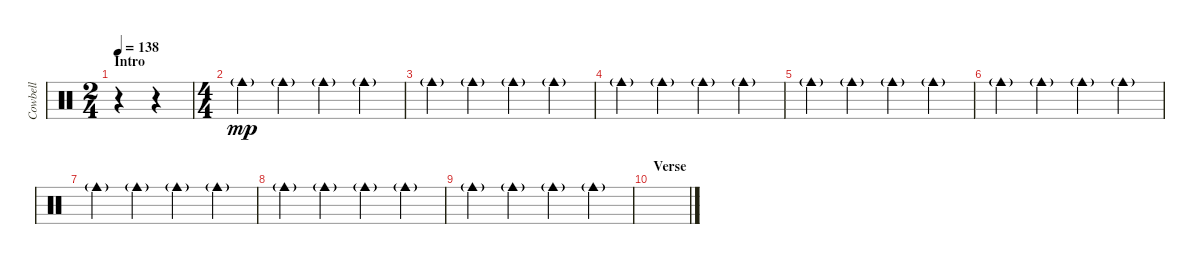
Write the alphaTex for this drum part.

\track ("Cowbell" "Cowbell") {instrument percussion}
\staff {score}
\articulation defaults
\ts (2 4)
\section ("" "Intro")
\tempo 138
\clef neutral
\ks c
r.4{dy mp} r.4 |
\ts (4 4)
"Cowbell medium (hit)"{g}.4 "Cowbell medium (hit)"{g}.4 "Cowbell medium (hit)"{g}.4 "Cowbell medium (hit)"{g}.4 |
"Cowbell medium (hit)"{g}.4 "Cowbell medium (hit)"{g}.4 "Cowbell medium (hit)"{g}.4 "Cowbell medium (hit)"{g}.4 |
"Cowbell medium (hit)"{g}.4 "Cowbell medium (hit)"{g}.4 "Cowbell medium (hit)"{g}.4 "Cowbell medium (hit)"{g}.4 |
"Cowbell medium (hit)"{g}.4 "Cowbell medium (hit)"{g}.4 "Cowbell medium (hit)"{g}.4 "Cowbell medium (hit)"{g}.4 |
"Cowbell medium (hit)"{g}.4 "Cowbell medium (hit)"{g}.4 "Cowbell medium (hit)"{g}.4 "Cowbell medium (hit)"{g}.4 |
"Cowbell medium (hit)"{g}.4 "Cowbell medium (hit)"{g}.4 "Cowbell medium (hit)"{g}.4 "Cowbell medium (hit)"{g}.4 |
"Cowbell medium (hit)"{g}.4 "Cowbell medium (hit)"{g}.4 "Cowbell medium (hit)"{g}.4 "Cowbell medium (hit)"{g}.4 |
"Cowbell medium (hit)"{g}.4 "Cowbell medium (hit)"{g}.4 "Cowbell medium (hit)"{g}.4 "Cowbell medium (hit)"{g}.4 |
\section ("" "Verse")
